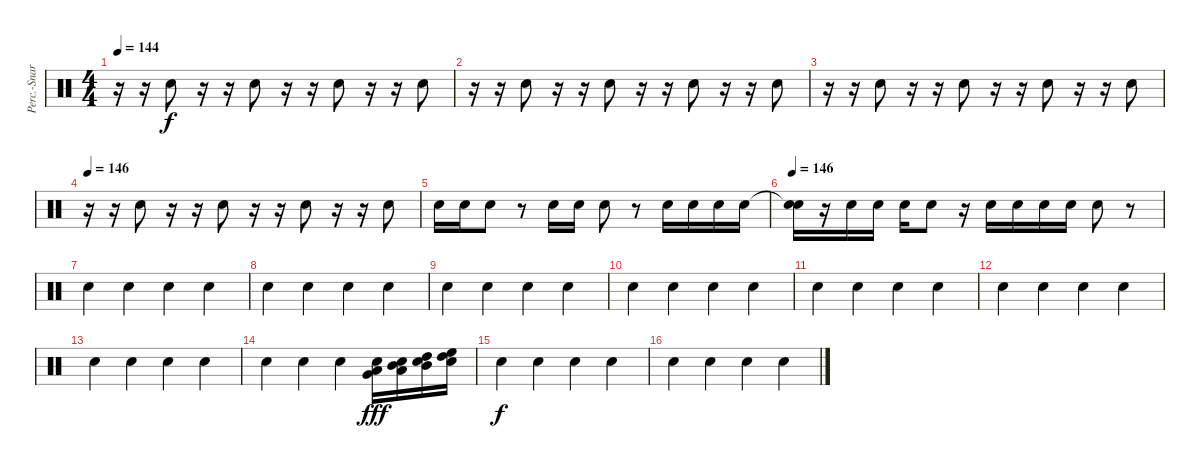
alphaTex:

\track ("Perc.-Snare" "Perc.-Snar") {instrument percussion}
\staff {score}
\articulation defaults
\ts (4 4)
\tempo 144
\clef neutral
\ks c
r.16{dy f} r.16 "Snare (hit) 2".8 r.16 r.16 "Snare (hit) 2".8 r.16 r.16 "Snare (hit) 2".8 r.16 r.16 "Snare (hit) 2".8 |
r.16 r.16 "Snare (hit) 2".8 r.16 r.16 "Snare (hit) 2".8 r.16 r.16 "Snare (hit) 2".8 r.16 r.16 "Snare (hit) 2".8 |
r.16 r.16 "Snare (hit) 2".8 r.16 r.16 "Snare (hit) 2".8 r.16 r.16 "Snare (hit) 2".8 r.16 r.16 "Snare (hit) 2".8 |
\tempo 146
r.16 r.16 "Snare (hit) 2".8 r.16 r.16 "Snare (hit) 2".8 r.16 r.16 "Snare (hit) 2".8 r.16 r.16 "Snare (hit) 2".8 |
"Snare (hit) 2".16 "Snare (hit) 2".16 "Snare (hit) 2".8 r.8 "Snare (hit) 2".16 "Snare (hit) 2".16 "Snare (hit) 2".8 r.8 "Snare (hit) 2".16 "Snare (hit) 2".16 "Snare (hit) 2".16 "Snare (hit) 2".16 |
\tempo 146
("Snare (hit)"{t} "Snare (hit)").16 r.16 "Snare (hit) 2".16 "Snare (hit) 2".16 "Snare (hit) 2".16 "Snare (hit) 2".8 r.16 "Snare (hit) 2".16 "Snare (hit) 2".16 "Snare (hit) 2".16 "Snare (hit) 2".16 "Snare (hit) 2".8 r.8 |
"Snare (hit) 2".4 "Snare (hit) 2".4 "Snare (hit) 2".4 "Snare (hit) 2".4 |
"Snare (hit) 2".4 "Snare (hit) 2".4 "Snare (hit) 2".4 "Snare (hit) 2".4 |
"Snare (hit) 2".4 "Snare (hit) 2".4 "Snare (hit) 2".4 "Snare (hit) 2".4 |
"Snare (hit) 2".4 "Snare (hit) 2".4 "Snare (hit) 2".4 "Snare (hit) 2".4 |
"Snare (hit) 2".4 "Snare (hit) 2".4 "Snare (hit) 2".4 "Snare (hit) 2".4 |
"Snare (hit) 2".4 "Snare (hit) 2".4 "Snare (hit) 2".4 "Snare (hit) 2".4 |
"Snare (hit) 2".4 "Snare (hit) 2".4 "Snare (hit) 2".4 "Snare (hit) 2".4 |
"Snare (hit) 2".4 "Snare (hit) 2".4 "Snare (hit) 2".4 ("Low Tom (hit)" "Very Low Tom (hit)" "Snare (hit) 2").16{dy fff} ("Mid Tom (hit)" "Low Tom (hit)" "Snare (hit) 2").16 ("High Tom (hit)" "Mid Tom (hit)" "Snare (hit) 2").16 ("High Floor Tom (hit)" "High Tom (hit)" "Snare (hit) 2").16 |
"Snare (hit) 2".4{dy f} "Snare (hit) 2".4 "Snare (hit) 2".4 "Snare (hit) 2".4 |
"Snare (hit) 2".4 "Snare (hit) 2".4 "Snare (hit) 2".4 "Snare (hit) 2".4
